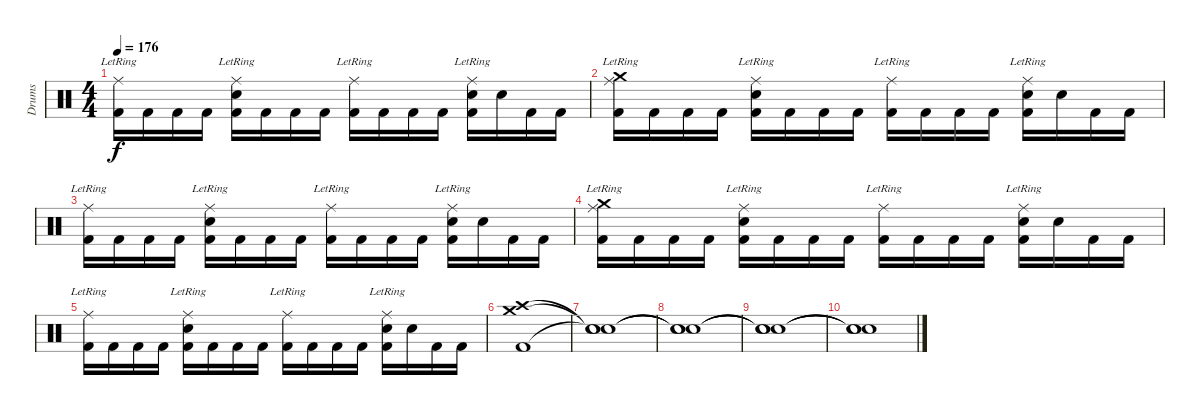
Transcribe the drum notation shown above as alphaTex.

\track ("Drums" "Drums") {instrument percussion}
\staff {score}
\articulation defaults
\ts (4 4)
\tempo 176
\clef neutral
\ks c
("Ride (middle)"{lr} "Kick (hit) 2").16{dy f} "Kick (hit) 2".16 "Kick (hit) 2".16 "Kick (hit) 2".16 ("Ride (middle)"{lr} "Snare (hit) 2" "Kick (hit) 2").16 "Kick (hit) 2".16 "Kick (hit) 2".16 "Kick (hit) 2".16 ("Ride (middle)"{lr} "Kick (hit) 2").16 "Kick (hit) 2".16 "Kick (hit) 2".16 "Kick (hit) 2".16 ("Ride (middle)"{lr} "Snare (hit) 2" "Kick (hit) 2").16 "Snare (hit)".16 "Kick (hit) 2".16 "Kick (hit) 2".16 |
("Ride (middle)"{lr} "Crash medium (hit)" "Kick (hit) 2").16 "Kick (hit) 2".16 "Kick (hit) 2".16 "Kick (hit) 2".16 ("Ride (middle)"{lr} "Snare (hit) 2" "Kick (hit) 2").16 "Kick (hit) 2".16 "Kick (hit) 2".16 "Kick (hit) 2".16 ("Ride (middle)"{lr} "Kick (hit) 2").16 "Kick (hit) 2".16 "Kick (hit) 2".16 "Kick (hit) 2".16 ("Ride (middle)"{lr} "Snare (hit) 2" "Kick (hit) 2").16 "Snare (hit)".16 "Kick (hit) 2".16 "Kick (hit) 2".16 |
("Ride (middle)"{lr} "Kick (hit) 2").16 "Kick (hit) 2".16 "Kick (hit) 2".16 "Kick (hit) 2".16 ("Ride (middle)"{lr} "Snare (hit) 2" "Kick (hit) 2").16 "Kick (hit) 2".16 "Kick (hit) 2".16 "Kick (hit) 2".16 ("Ride (middle)"{lr} "Kick (hit) 2").16 "Kick (hit) 2".16 "Kick (hit) 2".16 "Kick (hit) 2".16 ("Ride (middle)"{lr} "Snare (hit) 2" "Kick (hit) 2").16 "Snare (hit)".16 "Kick (hit) 2".16 "Kick (hit) 2".16 |
("Ride (middle)"{lr} "Crash medium (hit)" "Kick (hit) 2").16 "Kick (hit) 2".16 "Kick (hit) 2".16 "Kick (hit) 2".16 ("Ride (middle)"{lr} "Snare (hit) 2" "Kick (hit) 2").16 "Kick (hit) 2".16 "Kick (hit) 2".16 "Kick (hit) 2".16 ("Ride (middle)"{lr} "Kick (hit) 2").16 "Kick (hit) 2".16 "Kick (hit) 2".16 "Kick (hit) 2".16 ("Ride (middle)"{lr} "Snare (hit) 2" "Kick (hit) 2").16 "Snare (hit)".16 "Kick (hit) 2".16 "Kick (hit) 2".16 |
("Ride (middle)"{lr} "Kick (hit) 2").16 "Kick (hit) 2".16 "Kick (hit) 2".16 "Kick (hit) 2".16 ("Ride (middle)"{lr} "Snare (hit) 2" "Kick (hit) 2").16 "Kick (hit) 2".16 "Kick (hit) 2".16 "Kick (hit) 2".16 ("Ride (middle)"{lr} "Kick (hit) 2").16 "Kick (hit) 2".16 "Kick (hit) 2".16 "Kick (hit) 2".16 ("Ride (middle)"{lr} "Snare (hit) 2" "Kick (hit) 2").16 "Snare (hit)".16 "Kick (hit) 2".16 "Kick (hit) 2".16 |
("Crash high (hit)" "Crash medium (hit)" "Kick (hit) 2").1 |
("Snare (hit)"{t} "Snare (hit)"{t} "Snare (hit)"{t}).1 |
("Snare (hit)"{t} "Snare (hit)"{t} "Snare (hit)"{t}).1 |
("Snare (hit)"{t} "Snare (hit)"{t} "Snare (hit)"{t}).1 |
("Snare (hit)"{t} "Snare (hit)"{t} "Snare (hit)"{t}).1
